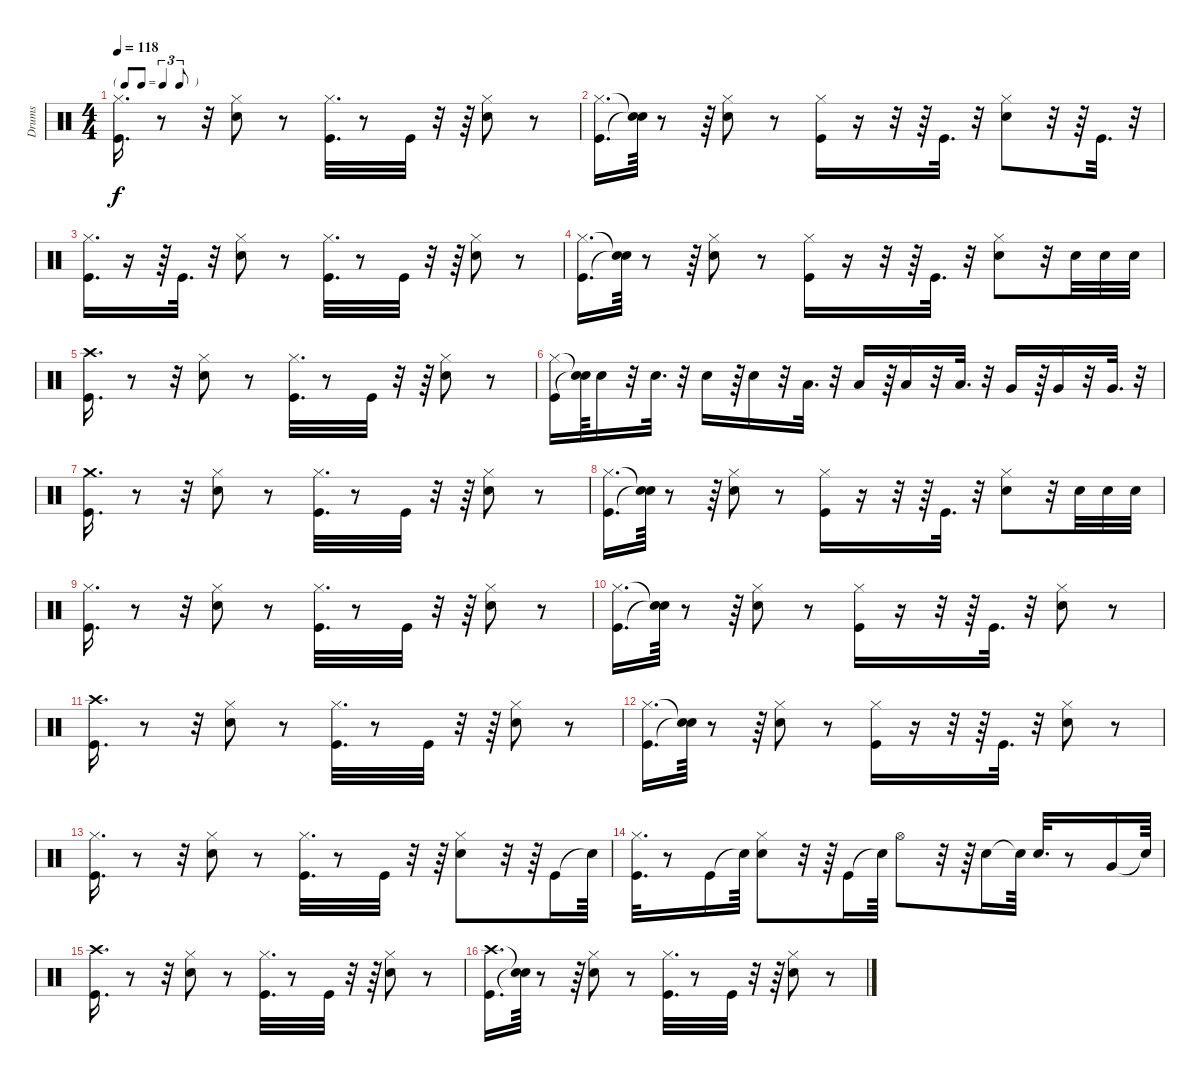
\track ("Drums" "Drums") {instrument percussion}
\staff {score}
\articulation defaults
\ts (4 4)
\tf triplet8th
\tempo 118
\clef neutral
\ks c
("Hi-Hat (closed)" "Kick (hit)").16{d dy f} r.8 r.32 ("Hi-Hat (closed)" "Snare (hit) 2").8 r.8 ("Hi-Hat (closed)" "Kick (hit)").32{d} r.8 "Kick (hit)".32 r.32 r.64 ("Snare (hit) 2" "Hi-Hat (closed)").8 r.8 |
("Hi-Hat (closed)" "Kick (hit)").16{d} ("Snare (hit)"{t} "Snare (hit)"{t}).64 r.8 r.64 ("Hi-Hat (closed)" "Snare (hit) 2").8 r.8 ("Hi-Hat (closed)" "Kick (hit)").16 r.16 r.32 r.64 "Kick (hit)".32{d} r.32 ("Snare (hit) 2" "Hi-Hat (closed)").8 r.32 r.64 "Kick (hit)".32{d} r.32 |
("Kick (hit)" "Hi-Hat (closed)").16{d} r.16 r.64 "Kick (hit)".32{d} r.32 ("Snare (hit) 2" "Hi-Hat (closed)").8 r.8 ("Hi-Hat (closed)" "Kick (hit)").32{d} r.8 "Kick (hit)".32 r.32 r.64 ("Hi-Hat (closed)" "Snare (hit) 2").8 r.8 |
("Kick (hit)" "Hi-Hat (closed)").16{d} ("Snare (hit)"{t} "Snare (hit)"{t}).64 r.8 r.64 ("Hi-Hat (closed)" "Snare (hit) 2").8 r.8 ("Hi-Hat (closed)" "Kick (hit)").16 r.16 r.32 r.64 "Kick (hit)".32{d} r.32 ("Snare (hit) 2" "Hi-Hat (closed)").8 r.32 "Snare (hit) 2".32 "Snare (hit) 2".32 "Snare (hit) 2".32 |
("Crash high (hit)" "Kick (hit)").16{d} r.8 r.32 ("Hi-Hat (closed)" "Snare (hit) 2").8 r.8 ("Hi-Hat (closed)" "Kick (hit)").32{d} r.8 "Kick (hit)".32 r.32 r.64 ("Hi-Hat (closed)" "Snare (hit) 2").8 r.8 |
("Hi-Hat (closed)" "Kick (hit)").16 ("Snare (hit)"{t} "Snare (hit)"{t}).64 "Snare (hit) 2".16 r.32 "Snare (hit) 2".32{d} r.32 "Snare (hit) 2".16 r.64 "Snare (hit) 2".16 r.32 "Low Tom (hit)".32{d} r.32 "Low Tom (hit)".16 r.64 "Low Tom (hit)".16 r.32 "Low Tom (hit)".32{d} r.32 "Very Low Tom (hit)".16 r.64 "Very Low Tom (hit)".16 r.32 "Very Low Tom (hit)".32{d} r.32 |
("Kick (hit)" "Crash medium (hit)").16{d} r.8 r.32 ("Hi-Hat (closed)" "Snare (hit) 2").8 r.8 ("Kick (hit)" "Hi-Hat (closed)").32{d} r.8 "Kick (hit)".32 r.32 r.64 ("Hi-Hat (closed)" "Snare (hit) 2").8 r.8 |
("Kick (hit)" "Hi-Hat (closed)").16{d} ("Snare (hit)"{t} "Snare (hit)"{t}).64 r.8 r.64 ("Snare (hit) 2" "Hi-Hat (closed)").8 r.8 ("Hi-Hat (closed)" "Kick (hit)").16 r.16 r.32 r.64 "Kick (hit)".32{d} r.32 ("Snare (hit) 2" "Hi-Hat (closed)").8 r.32 "Snare (hit) 2".32 "Snare (hit) 2".32 "Snare (hit) 2".32 |
("Kick (hit)" "Hi-Hat (closed)").16{d} r.8 r.32 ("Snare (hit) 2" "Hi-Hat (closed)").8 r.8 ("Hi-Hat (closed)" "Kick (hit)").32{d} r.8 "Kick (hit)".32 r.32 r.64 ("Hi-Hat (closed)" "Snare (hit) 2").8 r.8 |
("Kick (hit)" "Hi-Hat (closed)").16{d} ("Snare (hit)"{t} "Snare (hit)"{t}).64 r.8 r.64 ("Hi-Hat (closed)" "Snare (hit) 2").8 r.8 ("Kick (hit)" "Hi-Hat (closed)").16 r.16 r.32 r.64 "Kick (hit)".32{d} r.32 ("Snare (hit) 2" "Hi-Hat (closed)").8 r.8 |
("Crash high (hit)" "Kick (hit)").16{d} r.8 r.32 ("Hi-Hat (closed)" "Snare (hit) 2").8 r.8 ("Kick (hit)" "Hi-Hat (closed)").32{d} r.8 "Kick (hit)".32 r.32 r.64 ("Snare (hit) 2" "Hi-Hat (closed)").8 r.8 |
("Hi-Hat (closed)" "Kick (hit)").16{d} ("Snare (hit)"{t} "Snare (hit)"{t}).64 r.8 r.64 ("Hi-Hat (closed)" "Snare (hit) 2").8 r.8 ("Kick (hit)" "Hi-Hat (closed)").16 r.16 r.32 r.64 "Kick (hit)".32{d} r.32 ("Hi-Hat (closed)" "Snare (hit) 2").8 r.8 |
("Kick (hit)" "Hi-Hat (closed)").16{d} r.8 r.32 ("Snare (hit) 2" "Hi-Hat (closed)").8 r.8 ("Hi-Hat (closed)" "Kick (hit)").32{d} r.8 "Kick (hit)".32 r.32 r.64 ("Hi-Hat (closed)" "Snare (hit) 2").8 r.32 r.64 "Kick (hit)".16 "Snare (hit)"{t}.64 |
("Kick (hit)" "Hi-Hat (closed)").32{d} r.8 "Kick (hit)".16 "Snare (hit)"{t}.64 ("Hi-Hat (closed)" "Snare (hit) 2").8 r.32 r.64 "Kick (hit)".16 "Snare (hit)"{t}.64 "Hi-Hat (open)".8 r.32 r.64 "Snare (hit) 2".16 "Snare (hit)"{t}.64 "Snare (hit) 2".32{d} r.8 "Very Low Tom (hit)".16 "Snare (hit)"{t}.64 |
("Kick (hit)" "Crash high (hit)").16{d} r.8 r.32 ("Snare (hit) 2" "Hi-Hat (closed)").8 r.8 ("Hi-Hat (closed)" "Kick (hit)").32{d} r.8 "Kick (hit)".32 r.32 r.64 ("Hi-Hat (closed)" "Snare (hit) 2").8 r.8 |
("Crash high (hit)" "Kick (hit)").16{d} ("Snare (hit)"{t} "Snare (hit)"{t}).64 r.8 r.64 ("Hi-Hat (closed)" "Snare (hit) 2").8 r.8 ("Hi-Hat (closed)" "Kick (hit)").32{d} r.8 "Kick (hit)".32 r.32 r.64 ("Snare (hit) 2" "Hi-Hat (closed)").8 r.8
